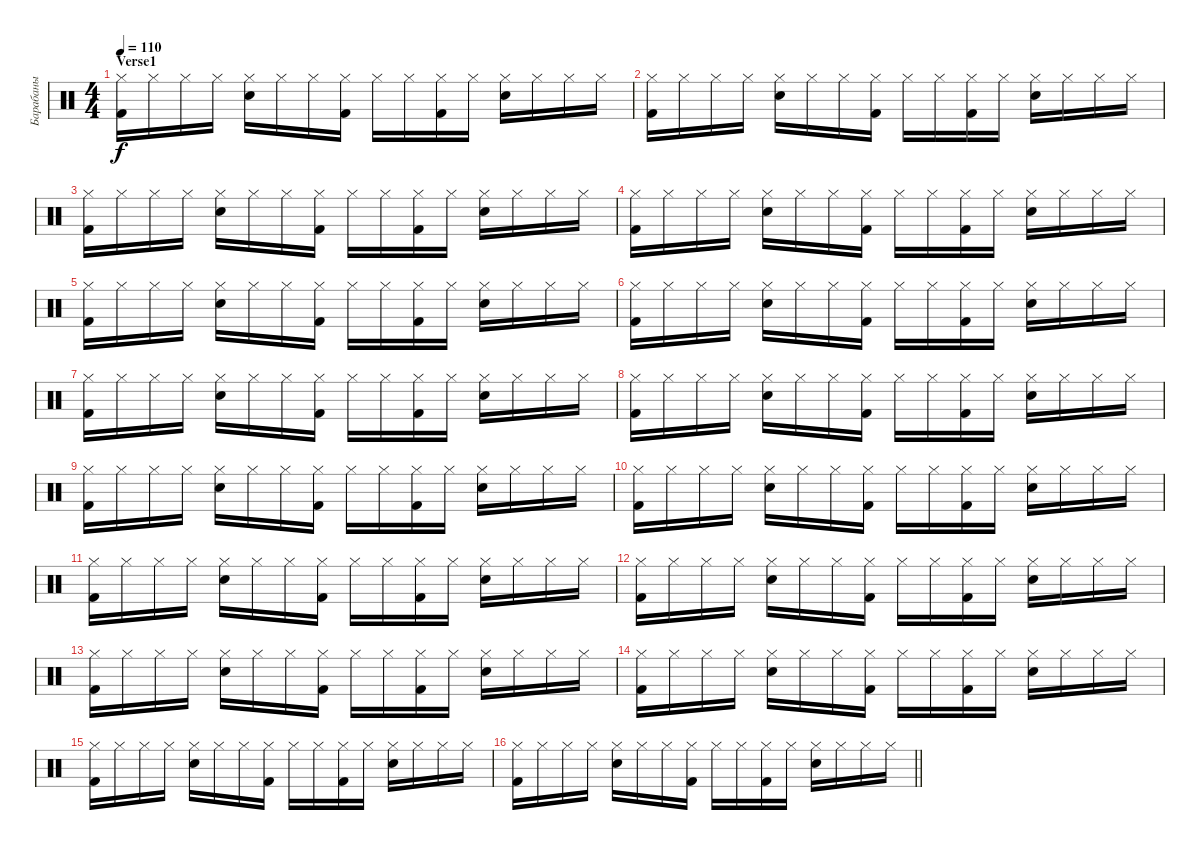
\track ("Барабаны" "Барабаны") {instrument percussion}
\staff {score}
\articulation defaults
\ts (4 4)
\section ("" "Verse1")
\tempo 110
\clef neutral
\ks c
("Hi-Hat (closed)" "Kick (hit) 2").16{dy f} "Hi-Hat (closed)".16 "Hi-Hat (closed)".16 "Hi-Hat (closed)".16 ("Hi-Hat (closed)" "Snare (hit) 2").16 "Hi-Hat (closed)".16 "Hi-Hat (closed)".16 ("Hi-Hat (closed)" "Kick (hit) 2").16 "Hi-Hat (closed)".16 "Hi-Hat (closed)".16 ("Hi-Hat (closed)" "Kick (hit) 2").16 "Hi-Hat (closed)".16 ("Hi-Hat (closed)" "Snare (hit) 2").16 "Hi-Hat (closed)".16 "Hi-Hat (closed)".16 "Hi-Hat (closed)".16 |
("Hi-Hat (closed)" "Kick (hit) 2").16 "Hi-Hat (closed)".16 "Hi-Hat (closed)".16 "Hi-Hat (closed)".16 ("Hi-Hat (closed)" "Snare (hit) 2").16 "Hi-Hat (closed)".16 "Hi-Hat (closed)".16 ("Hi-Hat (closed)" "Kick (hit) 2").16 "Hi-Hat (closed)".16 "Hi-Hat (closed)".16 ("Hi-Hat (closed)" "Kick (hit) 2").16 "Hi-Hat (closed)".16 ("Hi-Hat (closed)" "Snare (hit) 2").16 "Hi-Hat (closed)".16 "Hi-Hat (closed)".16 "Hi-Hat (closed)".16 |
("Hi-Hat (closed)" "Kick (hit) 2").16 "Hi-Hat (closed)".16 "Hi-Hat (closed)".16 "Hi-Hat (closed)".16 ("Hi-Hat (closed)" "Snare (hit) 2").16 "Hi-Hat (closed)".16 "Hi-Hat (closed)".16 ("Hi-Hat (closed)" "Kick (hit) 2").16 "Hi-Hat (closed)".16 "Hi-Hat (closed)".16 ("Hi-Hat (closed)" "Kick (hit) 2").16 "Hi-Hat (closed)".16 ("Hi-Hat (closed)" "Snare (hit) 2").16 "Hi-Hat (closed)".16 "Hi-Hat (closed)".16 "Hi-Hat (closed)".16 |
("Hi-Hat (closed)" "Kick (hit) 2").16 "Hi-Hat (closed)".16 "Hi-Hat (closed)".16 "Hi-Hat (closed)".16 ("Hi-Hat (closed)" "Snare (hit) 2").16 "Hi-Hat (closed)".16 "Hi-Hat (closed)".16 ("Hi-Hat (closed)" "Kick (hit) 2").16 "Hi-Hat (closed)".16 "Hi-Hat (closed)".16 ("Hi-Hat (closed)" "Kick (hit) 2").16 "Hi-Hat (closed)".16 ("Hi-Hat (closed)" "Snare (hit) 2").16 "Hi-Hat (closed)".16 "Hi-Hat (closed)".16 "Hi-Hat (closed)".16 |
("Hi-Hat (closed)" "Kick (hit) 2").16 "Hi-Hat (closed)".16 "Hi-Hat (closed)".16 "Hi-Hat (closed)".16 ("Hi-Hat (closed)" "Snare (hit) 2").16 "Hi-Hat (closed)".16 "Hi-Hat (closed)".16 ("Hi-Hat (closed)" "Kick (hit) 2").16 "Hi-Hat (closed)".16 "Hi-Hat (closed)".16 ("Hi-Hat (closed)" "Kick (hit) 2").16 "Hi-Hat (closed)".16 ("Hi-Hat (closed)" "Snare (hit) 2").16 "Hi-Hat (closed)".16 "Hi-Hat (closed)".16 "Hi-Hat (closed)".16 |
("Hi-Hat (closed)" "Kick (hit) 2").16 "Hi-Hat (closed)".16 "Hi-Hat (closed)".16 "Hi-Hat (closed)".16 ("Hi-Hat (closed)" "Snare (hit) 2").16 "Hi-Hat (closed)".16 "Hi-Hat (closed)".16 ("Hi-Hat (closed)" "Kick (hit) 2").16 "Hi-Hat (closed)".16 "Hi-Hat (closed)".16 ("Hi-Hat (closed)" "Kick (hit) 2").16 "Hi-Hat (closed)".16 ("Hi-Hat (closed)" "Snare (hit) 2").16 "Hi-Hat (closed)".16 "Hi-Hat (closed)".16 "Hi-Hat (closed)".16 |
("Hi-Hat (closed)" "Kick (hit) 2").16 "Hi-Hat (closed)".16 "Hi-Hat (closed)".16 "Hi-Hat (closed)".16 ("Hi-Hat (closed)" "Snare (hit) 2").16 "Hi-Hat (closed)".16 "Hi-Hat (closed)".16 ("Hi-Hat (closed)" "Kick (hit) 2").16 "Hi-Hat (closed)".16 "Hi-Hat (closed)".16 ("Hi-Hat (closed)" "Kick (hit) 2").16 "Hi-Hat (closed)".16 ("Hi-Hat (closed)" "Snare (hit) 2").16 "Hi-Hat (closed)".16 "Hi-Hat (closed)".16 "Hi-Hat (closed)".16 |
("Hi-Hat (closed)" "Kick (hit) 2").16 "Hi-Hat (closed)".16 "Hi-Hat (closed)".16 "Hi-Hat (closed)".16 ("Hi-Hat (closed)" "Snare (hit) 2").16 "Hi-Hat (closed)".16 "Hi-Hat (closed)".16 ("Hi-Hat (closed)" "Kick (hit) 2").16 "Hi-Hat (closed)".16 "Hi-Hat (closed)".16 ("Hi-Hat (closed)" "Kick (hit) 2").16 "Hi-Hat (closed)".16 ("Hi-Hat (closed)" "Snare (hit) 2").16 "Hi-Hat (closed)".16 "Hi-Hat (closed)".16 "Hi-Hat (closed)".16 |
("Hi-Hat (closed)" "Kick (hit) 2").16 "Hi-Hat (closed)".16 "Hi-Hat (closed)".16 "Hi-Hat (closed)".16 ("Hi-Hat (closed)" "Snare (hit) 2").16 "Hi-Hat (closed)".16 "Hi-Hat (closed)".16 ("Hi-Hat (closed)" "Kick (hit) 2").16 "Hi-Hat (closed)".16 "Hi-Hat (closed)".16 ("Hi-Hat (closed)" "Kick (hit) 2").16 "Hi-Hat (closed)".16 ("Hi-Hat (closed)" "Snare (hit) 2").16 "Hi-Hat (closed)".16 "Hi-Hat (closed)".16 "Hi-Hat (closed)".16 |
("Hi-Hat (closed)" "Kick (hit) 2").16 "Hi-Hat (closed)".16 "Hi-Hat (closed)".16 "Hi-Hat (closed)".16 ("Hi-Hat (closed)" "Snare (hit) 2").16 "Hi-Hat (closed)".16 "Hi-Hat (closed)".16 ("Hi-Hat (closed)" "Kick (hit) 2").16 "Hi-Hat (closed)".16 "Hi-Hat (closed)".16 ("Hi-Hat (closed)" "Kick (hit) 2").16 "Hi-Hat (closed)".16 ("Hi-Hat (closed)" "Snare (hit) 2").16 "Hi-Hat (closed)".16 "Hi-Hat (closed)".16 "Hi-Hat (closed)".16 |
("Hi-Hat (closed)" "Kick (hit) 2").16 "Hi-Hat (closed)".16 "Hi-Hat (closed)".16 "Hi-Hat (closed)".16 ("Hi-Hat (closed)" "Snare (hit) 2").16 "Hi-Hat (closed)".16 "Hi-Hat (closed)".16 ("Hi-Hat (closed)" "Kick (hit) 2").16 "Hi-Hat (closed)".16 "Hi-Hat (closed)".16 ("Hi-Hat (closed)" "Kick (hit) 2").16 "Hi-Hat (closed)".16 ("Hi-Hat (closed)" "Snare (hit) 2").16 "Hi-Hat (closed)".16 "Hi-Hat (closed)".16 "Hi-Hat (closed)".16 |
("Hi-Hat (closed)" "Kick (hit) 2").16 "Hi-Hat (closed)".16 "Hi-Hat (closed)".16 "Hi-Hat (closed)".16 ("Hi-Hat (closed)" "Snare (hit) 2").16 "Hi-Hat (closed)".16 "Hi-Hat (closed)".16 ("Hi-Hat (closed)" "Kick (hit) 2").16 "Hi-Hat (closed)".16 "Hi-Hat (closed)".16 ("Hi-Hat (closed)" "Kick (hit) 2").16 "Hi-Hat (closed)".16 ("Hi-Hat (closed)" "Snare (hit) 2").16 "Hi-Hat (closed)".16 "Hi-Hat (closed)".16 "Hi-Hat (closed)".16 |
("Hi-Hat (closed)" "Kick (hit) 2").16 "Hi-Hat (closed)".16 "Hi-Hat (closed)".16 "Hi-Hat (closed)".16 ("Hi-Hat (closed)" "Snare (hit) 2").16 "Hi-Hat (closed)".16 "Hi-Hat (closed)".16 ("Hi-Hat (closed)" "Kick (hit) 2").16 "Hi-Hat (closed)".16 "Hi-Hat (closed)".16 ("Hi-Hat (closed)" "Kick (hit) 2").16 "Hi-Hat (closed)".16 ("Hi-Hat (closed)" "Snare (hit) 2").16 "Hi-Hat (closed)".16 "Hi-Hat (closed)".16 "Hi-Hat (closed)".16 |
("Hi-Hat (closed)" "Kick (hit) 2").16 "Hi-Hat (closed)".16 "Hi-Hat (closed)".16 "Hi-Hat (closed)".16 ("Hi-Hat (closed)" "Snare (hit) 2").16 "Hi-Hat (closed)".16 "Hi-Hat (closed)".16 ("Hi-Hat (closed)" "Kick (hit) 2").16 "Hi-Hat (closed)".16 "Hi-Hat (closed)".16 ("Hi-Hat (closed)" "Kick (hit) 2").16 "Hi-Hat (closed)".16 ("Hi-Hat (closed)" "Snare (hit) 2").16 "Hi-Hat (closed)".16 "Hi-Hat (closed)".16 "Hi-Hat (closed)".16 |
("Hi-Hat (closed)" "Kick (hit) 2").16 "Hi-Hat (closed)".16 "Hi-Hat (closed)".16 "Hi-Hat (closed)".16 ("Hi-Hat (closed)" "Snare (hit) 2").16 "Hi-Hat (closed)".16 "Hi-Hat (closed)".16 ("Hi-Hat (closed)" "Kick (hit) 2").16 "Hi-Hat (closed)".16 "Hi-Hat (closed)".16 ("Hi-Hat (closed)" "Kick (hit) 2").16 "Hi-Hat (closed)".16 ("Hi-Hat (closed)" "Snare (hit) 2").16 "Hi-Hat (closed)".16 "Hi-Hat (closed)".16 "Hi-Hat (closed)".16 |
\barLineRight lightlight
("Hi-Hat (closed)" "Kick (hit) 2").16 "Hi-Hat (closed)".16 "Hi-Hat (closed)".16 "Hi-Hat (closed)".16 ("Hi-Hat (closed)" "Snare (hit) 2").16 "Hi-Hat (closed)".16 "Hi-Hat (closed)".16 ("Hi-Hat (closed)" "Kick (hit) 2").16 "Hi-Hat (closed)".16 "Hi-Hat (closed)".16 ("Hi-Hat (closed)" "Kick (hit) 2").16 "Hi-Hat (closed)".16 ("Hi-Hat (closed)" "Snare (hit) 2").16 "Hi-Hat (closed)".16 "Hi-Hat (closed)".16 "Hi-Hat (closed)".16
